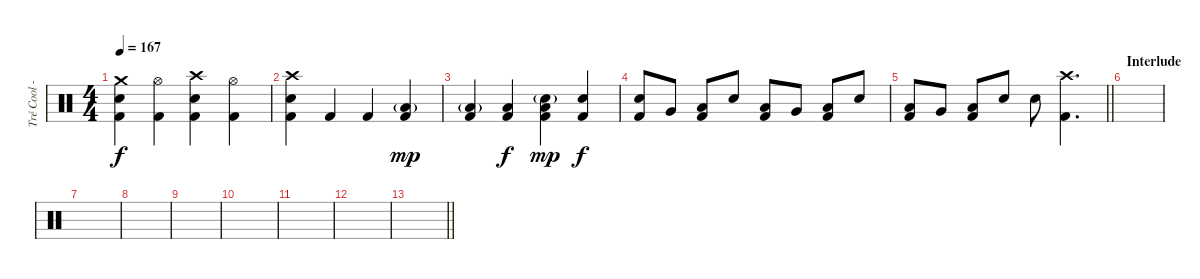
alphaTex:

\track ("Tré Cool - Drums" "Tré Cool -") {instrument percussion}
\staff {score}
\articulation defaults
\ts (4 4)
\tempo 167
\clef neutral
\ks c
("Crash medium (hit)" "Electric Snare (hit)" "Kick (hit) 2").4{dy f} ("Hi-Hat (open)" "Kick (hit) 2").4 ("Crash high (hit)" "Electric Snare (hit)" "Kick (hit) 2").4 ("Hi-Hat (open)" "Kick (hit) 2").4 |
("Crash high (hit)" "Electric Snare (hit)" "Kick (hit) 2").4 "Kick (hit) 2".4 "Kick (hit) 2".4 ("Low Floor Tom (hit)"{g} "Kick (hit) 2").4{dy mp} |
("Low Floor Tom (hit)"{g} "Kick (hit) 2").4 ("Low Floor Tom (hit)" "Kick (hit) 2").4{dy f} ("Electric Snare (hit)"{g} "Low Floor Tom (hit)" "Kick (hit) 2").4{dy mp} ("Electric Snare (hit)" "Kick (hit) 2").4{dy f} |
("Electric Snare (hit)" "Kick (hit) 2").8 "Very Low Tom (hit)".8 ("Low Floor Tom (hit)" "Kick (hit) 2").8 "Electric Snare (hit)".8 ("Low Tom (hit)" "Kick (hit) 2").8 "Very Low Tom (hit)".8 ("Low Floor Tom (hit)" "Kick (hit) 2").8 "Electric Snare (hit)".8 |
\barLineRight lightlight
("Low Tom (hit)" "Kick (hit) 2").8 "Very Low Tom (hit)".8 ("Low Floor Tom (hit)" "Kick (hit) 2").8 "Electric Snare (hit)".8 "Electric Snare (hit)".8 ("Crash high (hit)" "Kick (hit) 2").4{d} |
\section ("" "Interlude")
|
|
|
|
|
|
|
\barLineRight lightlight
